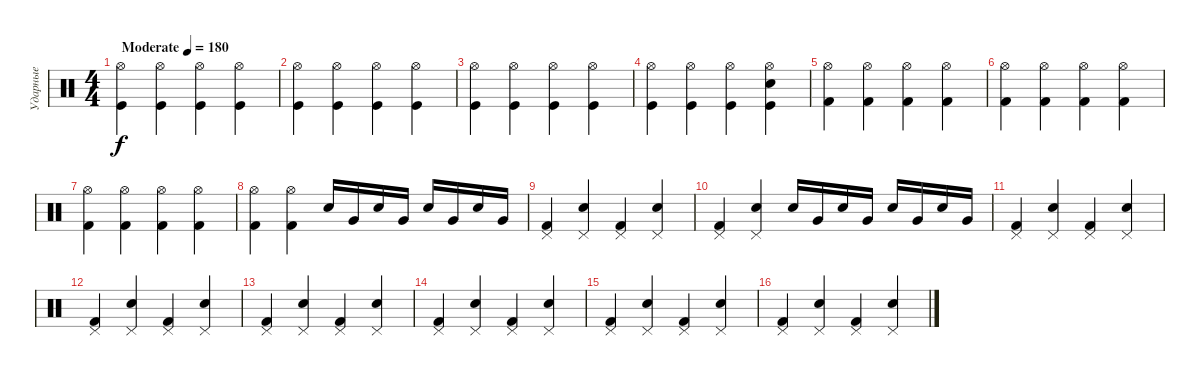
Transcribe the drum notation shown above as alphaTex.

\track ("Ударные" "Ударные") {instrument percussion}
\staff {score}
\articulation defaults
\ts (4 4)
\tempo (180 "Moderate")
\clef neutral
\ks c
("Hi-Hat (open)" "Kick (hit)").4{dy f} ("Hi-Hat (open)" "Kick (hit)").4 ("Hi-Hat (open)" "Kick (hit)").4 ("Hi-Hat (open)" "Kick (hit)").4 |
("Hi-Hat (open)" "Kick (hit)").4 ("Hi-Hat (open)" "Kick (hit)").4 ("Hi-Hat (open)" "Kick (hit)").4 ("Hi-Hat (open)" "Kick (hit)").4 |
("Hi-Hat (open)" "Kick (hit)").4 ("Hi-Hat (open)" "Kick (hit)").4 ("Hi-Hat (open)" "Kick (hit)").4 ("Hi-Hat (open)" "Kick (hit)").4 |
("Hi-Hat (open)" "Kick (hit)").4 ("Hi-Hat (open)" "Kick (hit)").4 ("Hi-Hat (open)" "Kick (hit)").4 ("Hi-Hat (open)" "Kick (hit)" "Electric Snare (hit)").4 |
("Hi-Hat (open)" "Kick (hit) 2").4 ("Hi-Hat (open)" "Kick (hit) 2").4 ("Hi-Hat (open)" "Kick (hit) 2").4 ("Hi-Hat (open)" "Kick (hit) 2").4 |
("Hi-Hat (open)" "Kick (hit) 2").4 ("Hi-Hat (open)" "Kick (hit) 2").4 ("Hi-Hat (open)" "Kick (hit) 2").4 ("Hi-Hat (open)" "Kick (hit) 2").4 |
("Hi-Hat (open)" "Kick (hit) 2").4 ("Hi-Hat (open)" "Kick (hit) 2").4 ("Hi-Hat (open)" "Kick (hit) 2").4 ("Hi-Hat (open)" "Kick (hit) 2").4 |
("Hi-Hat (open)" "Kick (hit) 2").4 ("Hi-Hat (open)" "Kick (hit) 2").4 "Electric Snare (hit)".16 "Very Low Tom (hit)".16 "Electric Snare (hit)".16 "Very Low Tom (hit)".16 "Electric Snare (hit)".16 "Very Low Tom (hit)".16 "Electric Snare (hit)".16 "Very Low Tom (hit)".16 |
("Kick (hit) 2" "Pedal Hi-Hat (hit)").4 ("Electric Snare (hit)" "Pedal Hi-Hat (hit)").4 ("Kick (hit) 2" "Pedal Hi-Hat (hit)").4 ("Electric Snare (hit)" "Pedal Hi-Hat (hit)").4 |
("Kick (hit) 2" "Pedal Hi-Hat (hit)").4 ("Electric Snare (hit)" "Pedal Hi-Hat (hit)").4 "Electric Snare (hit)".16 "Very Low Tom (hit)".16 "Electric Snare (hit)".16 "Very Low Tom (hit)".16 "Electric Snare (hit)".16 "Very Low Tom (hit)".16 "Electric Snare (hit)".16 "Very Low Tom (hit)".16 |
("Kick (hit) 2" "Pedal Hi-Hat (hit)").4 ("Electric Snare (hit)" "Pedal Hi-Hat (hit)").4 ("Kick (hit) 2" "Pedal Hi-Hat (hit)").4 ("Electric Snare (hit)" "Pedal Hi-Hat (hit)").4 |
("Kick (hit) 2" "Pedal Hi-Hat (hit)").4 ("Electric Snare (hit)" "Pedal Hi-Hat (hit)").4 ("Kick (hit) 2" "Pedal Hi-Hat (hit)").4 ("Electric Snare (hit)" "Pedal Hi-Hat (hit)").4 |
("Kick (hit) 2" "Pedal Hi-Hat (hit)").4 ("Electric Snare (hit)" "Pedal Hi-Hat (hit)").4 ("Kick (hit) 2" "Pedal Hi-Hat (hit)").4 ("Electric Snare (hit)" "Pedal Hi-Hat (hit)").4 |
("Kick (hit) 2" "Pedal Hi-Hat (hit)").4 ("Electric Snare (hit)" "Pedal Hi-Hat (hit)").4 ("Kick (hit) 2" "Pedal Hi-Hat (hit)").4 ("Electric Snare (hit)" "Pedal Hi-Hat (hit)").4 |
("Kick (hit) 2" "Pedal Hi-Hat (hit)").4 ("Electric Snare (hit)" "Pedal Hi-Hat (hit)").4 ("Kick (hit) 2" "Pedal Hi-Hat (hit)").4 ("Electric Snare (hit)" "Pedal Hi-Hat (hit)").4 |
("Kick (hit) 2" "Pedal Hi-Hat (hit)").4 ("Electric Snare (hit)" "Pedal Hi-Hat (hit)").4 ("Kick (hit) 2" "Pedal Hi-Hat (hit)").4 ("Electric Snare (hit)" "Pedal Hi-Hat (hit)").4
